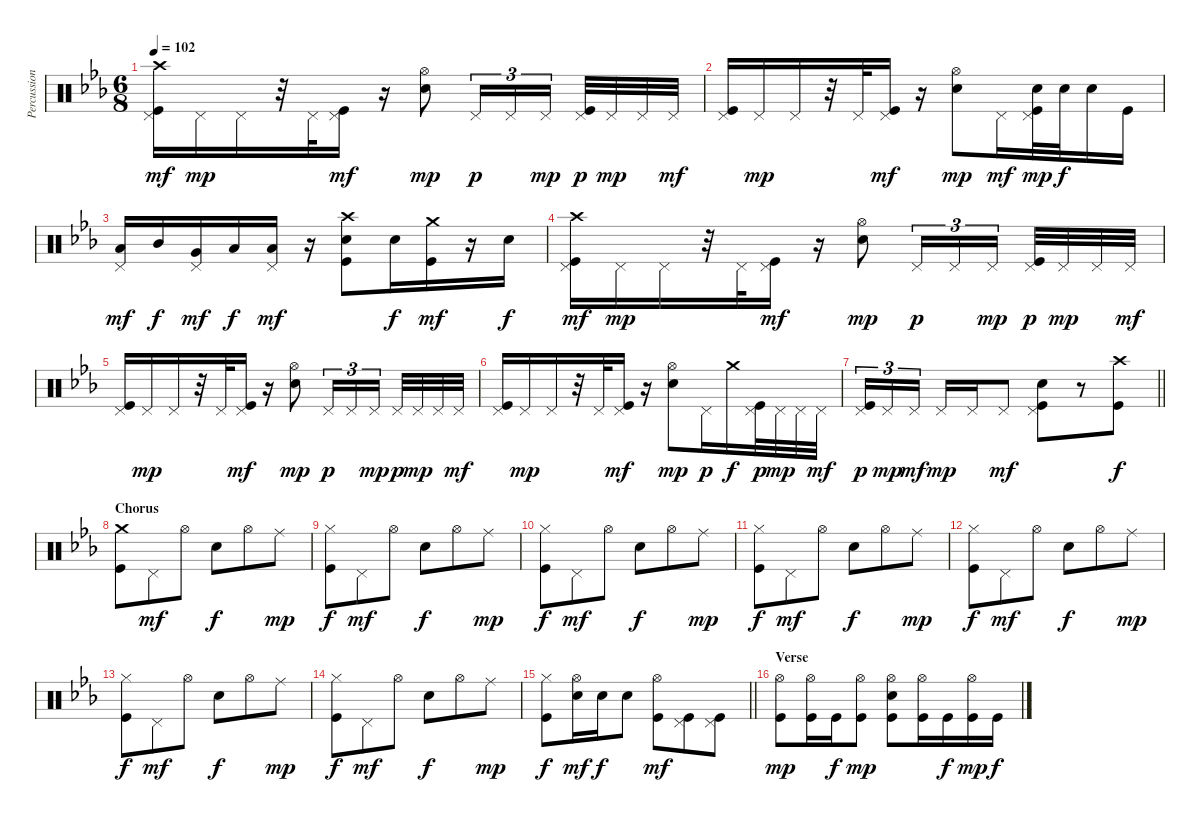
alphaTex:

\track ("Percussion" "Percussion") {instrument percussion}
\staff {score}
\articulation defaults
\ts (6 8)
\tempo 102
\clef neutral
\ks cminor
("Crash high (hit)" "Pedal Hi-Hat (hit)" "Kick (hit)").16{dy mf} "Pedal Hi-Hat (hit)".16{dy mp} "Pedal Hi-Hat (hit)".16 r.32 "Pedal Hi-Hat (hit)".32 ("Pedal Hi-Hat (hit)" "Kick (hit)").16{dy mf} r.16 ("Hi-Hat (open)" "Snare (hit) 2").8{dy mp} "Pedal Hi-Hat (hit)".16{tu (3 2) dy p} "Pedal Hi-Hat (hit)".16{tu (3 2)} "Pedal Hi-Hat (hit)".16{tu (3 2) dy mp beam splitsecondary} ("Pedal Hi-Hat (hit)" "Kick (hit)").32{dy p} "Pedal Hi-Hat (hit)".32{dy mp} "Pedal Hi-Hat (hit)".32 "Pedal Hi-Hat (hit)".32{dy mf} |
("Pedal Hi-Hat (hit)" "Kick (hit)").16 "Pedal Hi-Hat (hit)".16{dy mp} "Pedal Hi-Hat (hit)".16 r.32 "Pedal Hi-Hat (hit)".32 ("Pedal Hi-Hat (hit)" "Kick (hit)").16{dy mf} r.16 ("Hi-Hat (open)" "Snare (hit) 2").8{dy mp} "Pedal Hi-Hat (hit)".16{dy mf} ("Pedal Hi-Hat (hit)" "Snare (hit) 2" "Kick (hit)").32{dy mp} "Snare (hit) 2".32{dy f} "Snare (hit) 2".16 "Kick (hit)".16 |
("Pedal Hi-Hat (hit)" "Low Tom (hit)").16{dy mf} "Mid Tom (hit)".16{dy f} ("Pedal Hi-Hat (hit)" "Very Low Tom (hit)").16{dy mf} "Low Tom (hit)".16{dy f} ("Pedal Hi-Hat (hit)" "Low Floor Tom (hit)").16{dy mf} r.16 ("Crash high (hit)" "Snare (hit) 2" "Kick (hit)").8 "Snare (hit) 2".16{dy f} ("Crash medium (hit)" "Kick (hit)").16{dy mf} r.16 "Snare (hit) 2".16{dy f} |
("Crash high (hit)" "Pedal Hi-Hat (hit)" "Kick (hit)").16{dy mf} "Pedal Hi-Hat (hit)".16{dy mp} "Pedal Hi-Hat (hit)".16 r.32 "Pedal Hi-Hat (hit)".32 ("Pedal Hi-Hat (hit)" "Kick (hit)").16{dy mf} r.16 ("Hi-Hat (open)" "Snare (hit) 2").8{dy mp} "Pedal Hi-Hat (hit)".16{tu (3 2) dy p} "Pedal Hi-Hat (hit)".16{tu (3 2)} "Pedal Hi-Hat (hit)".16{tu (3 2) dy mp beam splitsecondary} ("Pedal Hi-Hat (hit)" "Kick (hit)").32{dy p} "Pedal Hi-Hat (hit)".32{dy mp} "Pedal Hi-Hat (hit)".32 "Pedal Hi-Hat (hit)".32{dy mf} |
("Pedal Hi-Hat (hit)" "Kick (hit)").16 "Pedal Hi-Hat (hit)".16{dy mp} "Pedal Hi-Hat (hit)".16 r.32 "Pedal Hi-Hat (hit)".32 ("Pedal Hi-Hat (hit)" "Kick (hit)").16{dy mf} r.16 ("Hi-Hat (open)" "Snare (hit) 2").8{dy mp} "Pedal Hi-Hat (hit)".16{tu (3 2) dy p} "Pedal Hi-Hat (hit)".16{tu (3 2)} "Pedal Hi-Hat (hit)".16{tu (3 2) dy mp beam splitsecondary} "Pedal Hi-Hat (hit)".32{dy p} "Pedal Hi-Hat (hit)".32{dy mp} "Pedal Hi-Hat (hit)".32 "Pedal Hi-Hat (hit)".32{dy mf} |
("Pedal Hi-Hat (hit)" "Kick (hit)").16 "Pedal Hi-Hat (hit)".16{dy mp} "Pedal Hi-Hat (hit)".16 r.32 "Pedal Hi-Hat (hit)".32 ("Pedal Hi-Hat (hit)" "Kick (hit)").16{dy mf} r.16 ("Hi-Hat (open)" "Snare (hit) 2").8{dy mp} "Pedal Hi-Hat (hit)".16{dy p} "Crash medium (hit)".16{dy f} ("Pedal Hi-Hat (hit)" "Kick (hit)").32{dy p} "Pedal Hi-Hat (hit)".32{dy mp} "Pedal Hi-Hat (hit)".32 "Pedal Hi-Hat (hit)".32{dy mf} |
\barLineRight lightlight
("Pedal Hi-Hat (hit)" "Kick (hit)").16{tu (3 2) dy p} "Pedal Hi-Hat (hit)".16{tu (3 2) dy mp} "Pedal Hi-Hat (hit)".16{tu (3 2) dy mf beam splitsecondary} "Pedal Hi-Hat (hit)".16{dy mp} "Pedal Hi-Hat (hit)".16 "Pedal Hi-Hat (hit)".8{dy mf} ("Pedal Hi-Hat (hit)" "Snare (hit) 2" "Kick (hit)").8 r.8 ("Crash high (hit)" "Kick (hit)").8{dy f} |
\section ("" "Chorus")
("Crash medium (hit)" "Kick (hit)").8 "Pedal Hi-Hat (hit)".8{dy mf} "Hi-Hat (open)".8 "Snare (hit) 2".8{dy f} "Hi-Hat (open)".8 "Ride (middle)".8{dy mp} |
("Hi-Hat (closed)" "Kick (hit)").8{dy f} "Pedal Hi-Hat (hit)".8{dy mf} "Hi-Hat (open)".8 "Snare (hit) 2".8{dy f} "Hi-Hat (open)".8 "Ride (middle)".8{dy mp} |
("Hi-Hat (closed)" "Kick (hit)").8{dy f} "Pedal Hi-Hat (hit)".8{dy mf} "Hi-Hat (open)".8 "Snare (hit) 2".8{dy f} "Hi-Hat (open)".8 "Ride (middle)".8{dy mp} |
("Hi-Hat (closed)" "Kick (hit)").8{dy f} "Pedal Hi-Hat (hit)".8{dy mf} "Hi-Hat (open)".8 "Snare (hit) 2".8{dy f} "Hi-Hat (open)".8 "Ride (middle)".8{dy mp} |
("Hi-Hat (closed)" "Kick (hit)").8{dy f} "Pedal Hi-Hat (hit)".8{dy mf} "Hi-Hat (open)".8 "Snare (hit) 2".8{dy f} "Hi-Hat (open)".8 "Ride (middle)".8{dy mp} |
("Hi-Hat (closed)" "Kick (hit)").8{dy f} "Pedal Hi-Hat (hit)".8{dy mf} "Hi-Hat (open)".8 "Snare (hit) 2".8{dy f} "Hi-Hat (open)".8 "Ride (middle)".8{dy mp} |
("Hi-Hat (closed)" "Kick (hit)").8{dy f} "Pedal Hi-Hat (hit)".8{dy mf} "Hi-Hat (open)".8 "Snare (hit) 2".8{dy f} "Hi-Hat (open)".8 "Ride (middle)".8{dy mp} |
\barLineRight lightlight
("Hi-Hat (closed)" "Kick (hit)").8{dy f} ("Hi-Hat (open)" "Snare (hit) 2").16{dy mf} "Snare (hit) 2".16{dy f} "Snare (hit) 2".8 ("Hi-Hat (open)" "Kick (hit)").8{dy mf} ("Pedal Hi-Hat (hit)" "Kick (hit)").8 ("Pedal Hi-Hat (hit)" "Kick (hit)").8 |
\section ("" "Verse")
("Hi-Hat (open)" "Kick (hit)").8{dy mp} ("Hi-Hat (open)" "Kick (hit)").16 "Kick (hit)".16{dy f} ("Hi-Hat (open)" "Kick (hit)").8{dy mp} ("Hi-Hat (open)" "Snare (hit) 2" "Kick (hit)").8 ("Hi-Hat (open)" "Kick (hit)").16 "Kick (hit)".16{dy f} ("Hi-Hat (open)" "Kick (hit)").16{dy mp} "Kick (hit)".16{dy f}
